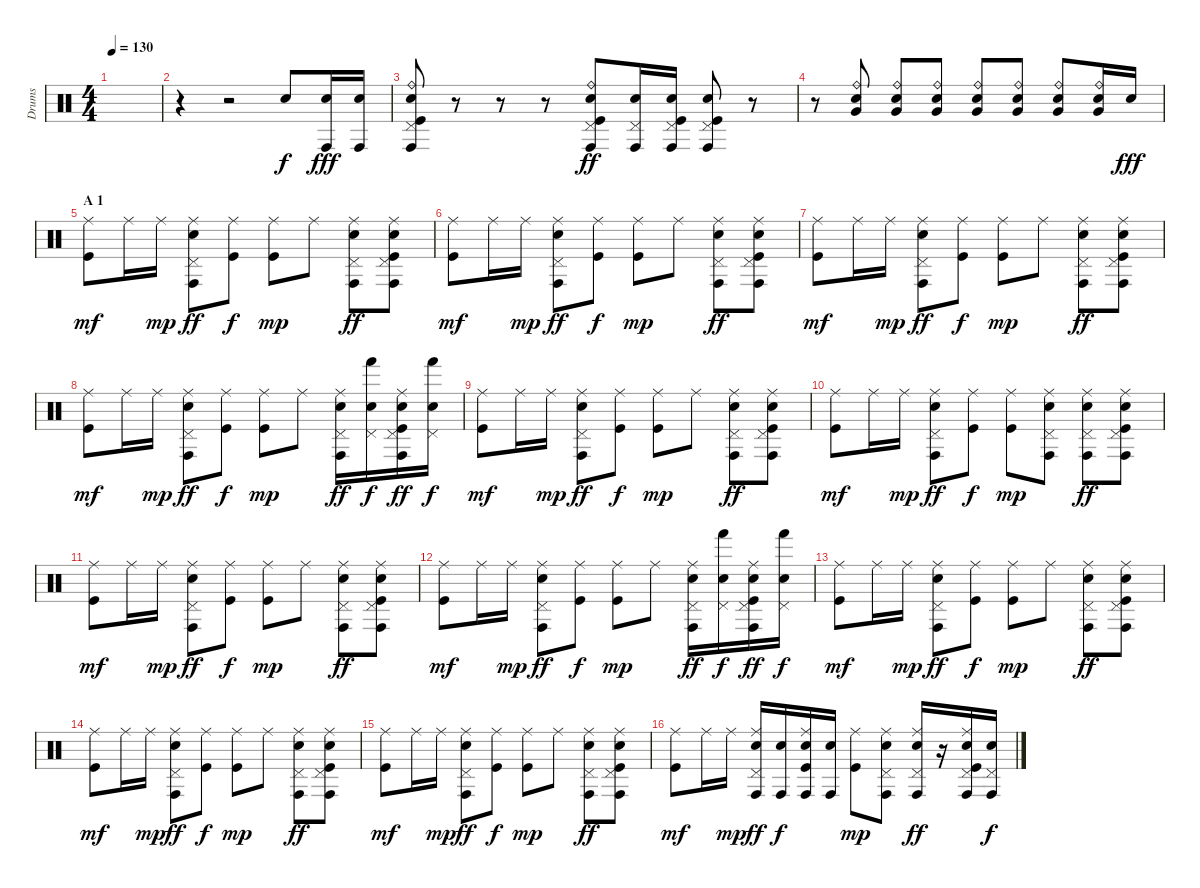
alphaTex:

\track ("Drums" "Drums") {instrument percussion}
\staff {score}
\articulation defaults
\ts (4 4)
\tempo 130
\clef neutral
\ks c
|
r.4 r.2 "Electric Snare (hit)".8 ("Conga high (hit)" "Electric Snare (hit)").16{dy fff} ("Conga high (hit)" "Electric Snare (hit)").16 |
("Ride (bell)" "Pedal Hi-Hat (hit)" "Conga high (hit)" "Electric Snare (hit)" "Kick (hit)").8 r.8 r.8 r.8 ("Ride (bell)" "Pedal Hi-Hat (hit)" "Conga high (hit)" "Electric Snare (hit)" "Kick (hit)").8{dy ff} ("Pedal Hi-Hat (hit)" "Conga high (hit)" "Electric Snare (hit)").16 ("Pedal Hi-Hat (hit)" "Conga high (hit)" "Electric Snare (hit)" "Kick (hit)").16 ("Pedal Hi-Hat (hit)" "Conga high (hit)" "Electric Snare (hit)" "Kick (hit)").8 r.8 |
r.8 ("Ride (bell)" "Electric Snare (hit)" "Very Low Tom (hit)").8 ("Ride (bell)" "Electric Snare (hit)" "Very Low Tom (hit)").8 ("Ride (bell)" "Electric Snare (hit)" "Very Low Tom (hit)").8 ("Ride (bell)" "Electric Snare (hit)" "Very Low Tom (hit)").8 ("Ride (bell)" "Electric Snare (hit)" "Very Low Tom (hit)").8 ("Ride (bell)" "Electric Snare (hit)" "Very Low Tom (hit)").8 ("Ride (bell)" "Electric Snare (hit)" "Very Low Tom (hit)").16 "Electric Snare (hit)".16{dy fff} |
\section ("" "A 1")
("Ride (middle)" "Kick (hit)").8{dy mf} "Ride (middle)".16 "Ride (middle)".16{dy mp} ("Ride (middle)" "Pedal Hi-Hat (hit)" "Conga high (hit)" "Electric Snare (hit)").8{dy ff} ("Ride (middle)" "Kick (hit)").8{dy f} ("Ride (middle)" "Kick (hit)").8{dy mp} "Ride (middle)".8 ("Ride (middle)" "Pedal Hi-Hat (hit)" "Conga high (hit)" "Electric Snare (hit)").8{dy ff} ("Ride (middle)" "Pedal Hi-Hat (hit)" "Conga high (hit)" "Electric Snare (hit)" "Kick (hit)").8 |
("Ride (middle)" "Kick (hit)").8{dy mf} "Ride (middle)".16 "Ride (middle)".16{dy mp} ("Ride (middle)" "Pedal Hi-Hat (hit)" "Conga high (hit)" "Electric Snare (hit)").8{dy ff} ("Ride (middle)" "Kick (hit)").8{dy f} ("Ride (middle)" "Kick (hit)").8{dy mp} "Ride (middle)".8 ("Ride (middle)" "Pedal Hi-Hat (hit)" "Conga high (hit)" "Electric Snare (hit)").8{dy ff} ("Ride (middle)" "Pedal Hi-Hat (hit)" "Conga high (hit)" "Electric Snare (hit)" "Kick (hit)").8 |
("Ride (middle)" "Kick (hit)").8{dy mf} "Ride (middle)".16 "Ride (middle)".16{dy mp} ("Ride (middle)" "Pedal Hi-Hat (hit)" "Conga high (hit)" "Electric Snare (hit)").8{dy ff} ("Ride (middle)" "Kick (hit)").8{dy f} ("Ride (middle)" "Kick (hit)").8{dy mp} "Ride (middle)".8 ("Ride (middle)" "Pedal Hi-Hat (hit)" "Conga high (hit)" "Electric Snare (hit)").8{dy ff} ("Ride (middle)" "Pedal Hi-Hat (hit)" "Conga high (hit)" "Electric Snare (hit)" "Kick (hit)").8 |
("Ride (middle)" "Kick (hit)").8{dy mf} "Ride (middle)".16 "Ride (middle)".16{dy mp} ("Ride (middle)" "Pedal Hi-Hat (hit)" "Conga high (hit)" "Electric Snare (hit)").8{dy ff} ("Ride (middle)" "Kick (hit)").8{dy f} ("Ride (middle)" "Kick (hit)").8{dy mp} "Ride (middle)".8 ("Ride (middle)" "Pedal Hi-Hat (hit)" "Conga high (hit)" "Electric Snare (hit)").16{dy ff} ("Pedal Hi-Hat (hit)" "Hand (hit)" "Electric Snare (hit)").16{dy f} ("Ride (middle)" "Pedal Hi-Hat (hit)" "Conga high (hit)" "Electric Snare (hit)" "Kick (hit)").16{dy ff} ("Pedal Hi-Hat (hit)" "Hand (hit)" "Electric Snare (hit)").16{dy f} |
("Ride (middle)" "Kick (hit)").8{dy mf} "Ride (middle)".16 "Ride (middle)".16{dy mp} ("Ride (middle)" "Pedal Hi-Hat (hit)" "Conga high (hit)" "Electric Snare (hit)").8{dy ff} ("Ride (middle)" "Kick (hit)").8{dy f} ("Ride (middle)" "Kick (hit)").8{dy mp} "Ride (middle)".8 ("Ride (middle)" "Pedal Hi-Hat (hit)" "Conga high (hit)" "Electric Snare (hit)").8{dy ff} ("Ride (middle)" "Pedal Hi-Hat (hit)" "Conga high (hit)" "Electric Snare (hit)" "Kick (hit)").8 |
("Ride (middle)" "Kick (hit)").8{dy mf} "Ride (middle)".16 "Ride (middle)".16{dy mp} ("Ride (middle)" "Pedal Hi-Hat (hit)" "Conga high (hit)" "Electric Snare (hit)").8{dy ff} ("Ride (middle)" "Kick (hit)").8{dy f} ("Ride (middle)" "Kick (hit)").8{dy mp} ("Ride (middle)" "Pedal Hi-Hat (hit)" "Conga high (hit)" "Electric Snare (hit)").8 ("Ride (middle)" "Pedal Hi-Hat (hit)" "Conga high (hit)" "Electric Snare (hit)").8{dy ff} ("Ride (middle)" "Pedal Hi-Hat (hit)" "Conga high (hit)" "Electric Snare (hit)" "Kick (hit)").8 |
("Ride (middle)" "Kick (hit)").8{dy mf} "Ride (middle)".16 "Ride (middle)".16{dy mp} ("Ride (middle)" "Pedal Hi-Hat (hit)" "Conga high (hit)" "Electric Snare (hit)").8{dy ff} ("Ride (middle)" "Kick (hit)").8{dy f} ("Ride (middle)" "Kick (hit)").8{dy mp} "Ride (middle)".8 ("Ride (middle)" "Pedal Hi-Hat (hit)" "Conga high (hit)" "Electric Snare (hit)").8{dy ff} ("Ride (middle)" "Pedal Hi-Hat (hit)" "Conga high (hit)" "Electric Snare (hit)" "Kick (hit)").8 |
("Ride (middle)" "Kick (hit)").8{dy mf} "Ride (middle)".16 "Ride (middle)".16{dy mp} ("Ride (middle)" "Pedal Hi-Hat (hit)" "Conga high (hit)" "Electric Snare (hit)").8{dy ff} ("Ride (middle)" "Kick (hit)").8{dy f} ("Ride (middle)" "Kick (hit)").8{dy mp} "Ride (middle)".8 ("Ride (middle)" "Pedal Hi-Hat (hit)" "Conga high (hit)" "Electric Snare (hit)").16{dy ff} ("Pedal Hi-Hat (hit)" "Hand (hit)" "Electric Snare (hit)").16{dy f} ("Ride (middle)" "Pedal Hi-Hat (hit)" "Conga high (hit)" "Electric Snare (hit)" "Kick (hit)").16{dy ff} ("Pedal Hi-Hat (hit)" "Hand (hit)" "Electric Snare (hit)").16{dy f} |
("Ride (middle)" "Kick (hit)").8{dy mf} "Ride (middle)".16 "Ride (middle)".16{dy mp} ("Ride (middle)" "Pedal Hi-Hat (hit)" "Conga high (hit)" "Electric Snare (hit)").8{dy ff} ("Ride (middle)" "Kick (hit)").8{dy f} ("Ride (middle)" "Kick (hit)").8{dy mp} "Ride (middle)".8 ("Ride (middle)" "Pedal Hi-Hat (hit)" "Conga high (hit)" "Electric Snare (hit)").8{dy ff} ("Ride (middle)" "Pedal Hi-Hat (hit)" "Conga high (hit)" "Electric Snare (hit)" "Kick (hit)").8 |
("Ride (middle)" "Kick (hit)").8{dy mf} "Ride (middle)".16 "Ride (middle)".16{dy mp} ("Ride (middle)" "Pedal Hi-Hat (hit)" "Conga high (hit)" "Electric Snare (hit)").8{dy ff} ("Ride (middle)" "Kick (hit)").8{dy f} ("Ride (middle)" "Kick (hit)").8{dy mp} "Ride (middle)".8 ("Ride (middle)" "Pedal Hi-Hat (hit)" "Conga high (hit)" "Electric Snare (hit)").8{dy ff} ("Ride (middle)" "Pedal Hi-Hat (hit)" "Conga high (hit)" "Electric Snare (hit)" "Kick (hit)").8 |
("Ride (middle)" "Kick (hit)").8{dy mf} "Ride (middle)".16 "Ride (middle)".16{dy mp} ("Ride (middle)" "Pedal Hi-Hat (hit)" "Conga high (hit)" "Electric Snare (hit)").8{dy ff} ("Ride (middle)" "Kick (hit)").8{dy f} ("Ride (middle)" "Kick (hit)").8{dy mp} "Ride (middle)".8 ("Ride (middle)" "Pedal Hi-Hat (hit)" "Conga high (hit)" "Electric Snare (hit)").8{dy ff} ("Ride (middle)" "Pedal Hi-Hat (hit)" "Conga high (hit)" "Electric Snare (hit)" "Kick (hit)").8 |
("Ride (middle)" "Kick (hit)").8{dy mf} "Ride (middle)".16 "Ride (middle)".16{dy mp} ("Ride (middle)" "Pedal Hi-Hat (hit)" "Conga high (hit)" "Electric Snare (hit)").16{dy ff} ("Conga high (hit)" "Electric Snare (hit)").16{dy f} ("Ride (middle)" "Conga high (hit)" "Electric Snare (hit)" "Kick (hit)").16 ("Conga high (hit)" "Electric Snare (hit)").16 ("Ride (middle)" "Kick (hit)").8{dy mp} ("Ride (middle)" "Pedal Hi-Hat (hit)" "Conga high (hit)" "Electric Snare (hit)").8 ("Ride (middle)" "Pedal Hi-Hat (hit)" "Conga high (hit)" "Electric Snare (hit)").16{dy ff} r.16 ("Ride (middle)" "Pedal Hi-Hat (hit)" "Conga high (hit)" "Electric Snare (hit)" "Kick (hit)").16 ("Pedal Hi-Hat (hit)" "Conga high (hit)" "Electric Snare (hit)").16{dy f}
